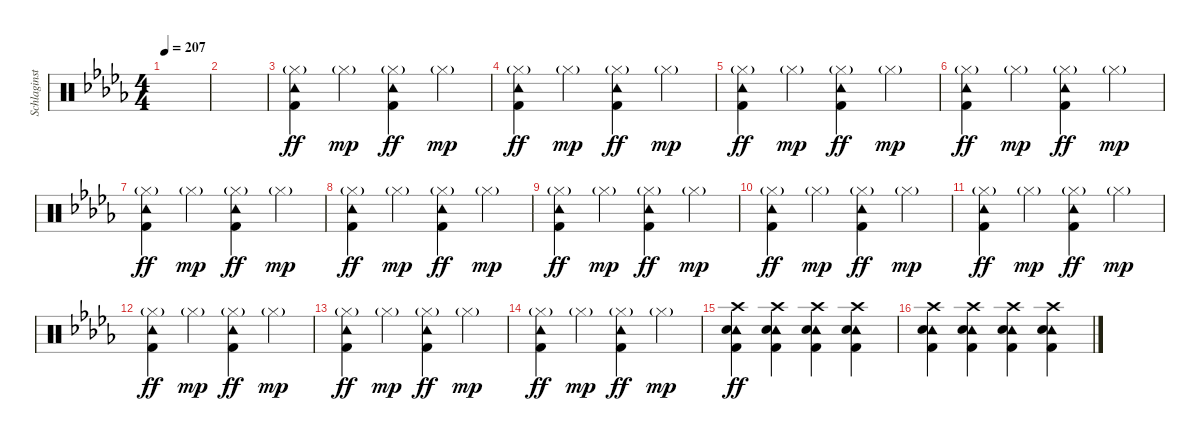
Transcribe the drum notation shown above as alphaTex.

\track ("Schlaginstrumente - Auswahl" "Schlaginst") {instrument percussion}
\staff {score}
\articulation defaults
\ts (4 4)
\tempo 207
\clef neutral
\ks bbminor
|
|
("Hi-Hat (closed)"{g} "Tambourine (hit)" "Kick (hit) 2").4{dy ff} "Hi-Hat (closed)"{g}.4{dy mp} ("Hi-Hat (closed)"{g} "Tambourine (hit)" "Kick (hit) 2").4{dy ff} "Hi-Hat (closed)"{g}.4{dy mp} |
("Hi-Hat (closed)"{g} "Tambourine (hit)" "Kick (hit) 2").4{dy ff} "Hi-Hat (closed)"{g}.4{dy mp} ("Hi-Hat (closed)"{g} "Tambourine (hit)" "Kick (hit) 2").4{dy ff} "Hi-Hat (closed)"{g}.4{dy mp} |
("Hi-Hat (closed)"{g} "Tambourine (hit)" "Kick (hit) 2").4{dy ff} "Hi-Hat (closed)"{g}.4{dy mp} ("Hi-Hat (closed)"{g} "Tambourine (hit)" "Kick (hit) 2").4{dy ff} "Hi-Hat (closed)"{g}.4{dy mp} |
("Hi-Hat (closed)"{g} "Tambourine (hit)" "Kick (hit) 2").4{dy ff} "Hi-Hat (closed)"{g}.4{dy mp} ("Hi-Hat (closed)"{g} "Tambourine (hit)" "Kick (hit) 2").4{dy ff} "Hi-Hat (closed)"{g}.4{dy mp} |
("Hi-Hat (closed)"{g} "Tambourine (hit)" "Kick (hit) 2").4{dy ff} "Hi-Hat (closed)"{g}.4{dy mp} ("Hi-Hat (closed)"{g} "Tambourine (hit)" "Kick (hit) 2").4{dy ff} "Hi-Hat (closed)"{g}.4{dy mp} |
("Hi-Hat (closed)"{g} "Tambourine (hit)" "Kick (hit) 2").4{dy ff} "Hi-Hat (closed)"{g}.4{dy mp} ("Hi-Hat (closed)"{g} "Tambourine (hit)" "Kick (hit) 2").4{dy ff} "Hi-Hat (closed)"{g}.4{dy mp} |
("Hi-Hat (closed)"{g} "Tambourine (hit)" "Kick (hit) 2").4{dy ff} "Hi-Hat (closed)"{g}.4{dy mp} ("Hi-Hat (closed)"{g} "Tambourine (hit)" "Kick (hit) 2").4{dy ff} "Hi-Hat (closed)"{g}.4{dy mp} |
("Hi-Hat (closed)"{g} "Tambourine (hit)" "Kick (hit) 2").4{dy ff} "Hi-Hat (closed)"{g}.4{dy mp} ("Hi-Hat (closed)"{g} "Tambourine (hit)" "Kick (hit) 2").4{dy ff} "Hi-Hat (closed)"{g}.4{dy mp} |
("Hi-Hat (closed)"{g} "Tambourine (hit)" "Kick (hit) 2").4{dy ff} "Hi-Hat (closed)"{g}.4{dy mp} ("Hi-Hat (closed)"{g} "Tambourine (hit)" "Kick (hit) 2").4{dy ff} "Hi-Hat (closed)"{g}.4{dy mp} |
("Hi-Hat (closed)"{g} "Tambourine (hit)" "Kick (hit) 2").4{dy ff} "Hi-Hat (closed)"{g}.4{dy mp} ("Hi-Hat (closed)"{g} "Tambourine (hit)" "Kick (hit) 2").4{dy ff} "Hi-Hat (closed)"{g}.4{dy mp} |
("Hi-Hat (closed)"{g} "Tambourine (hit)" "Kick (hit) 2").4{dy ff} "Hi-Hat (closed)"{g}.4{dy mp} ("Hi-Hat (closed)"{g} "Tambourine (hit)" "Kick (hit) 2").4{dy ff} "Hi-Hat (closed)"{g}.4{dy mp} |
("Hi-Hat (closed)"{g} "Tambourine (hit)" "Kick (hit) 2").4{dy ff} "Hi-Hat (closed)"{g}.4{dy mp} ("Hi-Hat (closed)"{g} "Tambourine (hit)" "Kick (hit) 2").4{dy ff} "Hi-Hat (closed)"{g}.4{dy mp} |
("Crash high (hit)" "Tambourine (hit)" "Snare (hit) 2" "Kick (hit) 2").4{dy ff} ("Crash high (hit)" "Tambourine (hit)" "Snare (hit) 2" "Kick (hit) 2").4 ("Crash high (hit)" "Tambourine (hit)" "Snare (hit) 2" "Kick (hit) 2").4 ("Crash high (hit)" "Tambourine (hit)" "Snare (hit) 2" "Kick (hit) 2").4 |
("Crash high (hit)" "Tambourine (hit)" "Snare (hit) 2" "Kick (hit) 2").4 ("Crash high (hit)" "Tambourine (hit)" "Snare (hit) 2" "Kick (hit) 2").4 ("Crash high (hit)" "Tambourine (hit)" "Snare (hit) 2" "Kick (hit) 2").4 ("Crash high (hit)" "Tambourine (hit)" "Snare (hit) 2" "Kick (hit) 2").4
